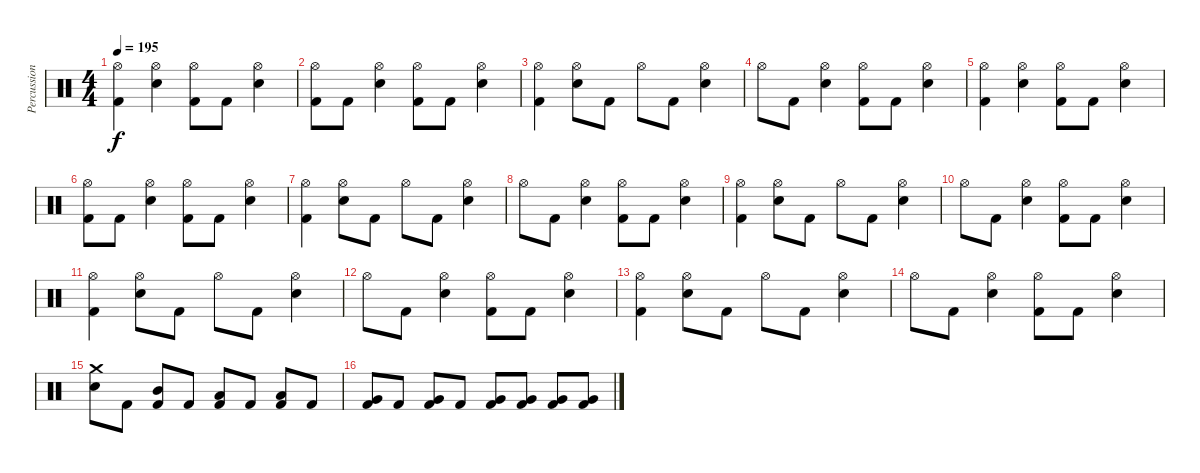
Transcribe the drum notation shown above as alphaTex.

\track ("Percussion" "Percussion") {instrument percussion}
\staff {score}
\articulation defaults
\ts (4 4)
\tempo 195
\clef neutral
\ks c
("Hi-Hat (open)" "Kick (hit) 2").4{dy f} ("Hi-Hat (open)" "Snare (hit) 2").4 ("Hi-Hat (open)" "Kick (hit) 2").8 "Kick (hit) 2".8 ("Hi-Hat (open)" "Snare (hit) 2").4 |
("Hi-Hat (open)" "Kick (hit) 2").8 "Kick (hit) 2".8 ("Hi-Hat (open)" "Snare (hit) 2").4 ("Hi-Hat (open)" "Kick (hit) 2").8 "Kick (hit) 2".8 ("Hi-Hat (open)" "Snare (hit) 2").4 |
("Hi-Hat (open)" "Kick (hit) 2").4 ("Hi-Hat (open)" "Snare (hit) 2").8 "Kick (hit) 2".8 "Hi-Hat (open)".8 "Kick (hit) 2".8 ("Hi-Hat (open)" "Snare (hit) 2").4 |
"Hi-Hat (open)".8 "Kick (hit) 2".8 ("Hi-Hat (open)" "Snare (hit) 2").4 ("Hi-Hat (open)" "Kick (hit) 2").8 "Kick (hit) 2".8 ("Hi-Hat (open)" "Snare (hit) 2").4 |
("Hi-Hat (open)" "Kick (hit) 2").4 ("Hi-Hat (open)" "Snare (hit) 2").4 ("Hi-Hat (open)" "Kick (hit) 2").8 "Kick (hit) 2".8 ("Hi-Hat (open)" "Snare (hit) 2").4 |
("Hi-Hat (open)" "Kick (hit) 2").8 "Kick (hit) 2".8 ("Hi-Hat (open)" "Snare (hit) 2").4 ("Hi-Hat (open)" "Kick (hit) 2").8 "Kick (hit) 2".8 ("Hi-Hat (open)" "Snare (hit) 2").4 |
("Hi-Hat (open)" "Kick (hit) 2").4 ("Hi-Hat (open)" "Snare (hit) 2").8 "Kick (hit) 2".8 "Hi-Hat (open)".8 "Kick (hit) 2".8 ("Hi-Hat (open)" "Snare (hit) 2").4 |
"Hi-Hat (open)".8 "Kick (hit) 2".8 ("Hi-Hat (open)" "Snare (hit) 2").4 ("Hi-Hat (open)" "Kick (hit) 2").8 "Kick (hit) 2".8 ("Hi-Hat (open)" "Snare (hit) 2").4 |
("Hi-Hat (open)" "Kick (hit) 2").4 ("Hi-Hat (open)" "Snare (hit) 2").8 "Kick (hit) 2".8 "Hi-Hat (open)".8 "Kick (hit) 2".8 ("Hi-Hat (open)" "Snare (hit) 2").4 |
"Hi-Hat (open)".8 "Kick (hit) 2".8 ("Hi-Hat (open)" "Snare (hit) 2").4 ("Hi-Hat (open)" "Kick (hit) 2").8 "Kick (hit) 2".8 ("Hi-Hat (open)" "Snare (hit) 2").4 |
("Hi-Hat (open)" "Kick (hit) 2").4 ("Hi-Hat (open)" "Snare (hit) 2").8 "Kick (hit) 2".8 "Hi-Hat (open)".8 "Kick (hit) 2".8 ("Hi-Hat (open)" "Snare (hit) 2").4 |
"Hi-Hat (open)".8 "Kick (hit) 2".8 ("Hi-Hat (open)" "Snare (hit) 2").4 ("Hi-Hat (open)" "Kick (hit) 2").8 "Kick (hit) 2".8 ("Hi-Hat (open)" "Snare (hit) 2").4 |
("Hi-Hat (open)" "Kick (hit) 2").4 ("Hi-Hat (open)" "Snare (hit) 2").8 "Kick (hit) 2".8 "Hi-Hat (open)".8 "Kick (hit) 2".8 ("Hi-Hat (open)" "Snare (hit) 2").4 |
"Hi-Hat (open)".8 "Kick (hit) 2".8 ("Hi-Hat (open)" "Snare (hit) 2").4 ("Hi-Hat (open)" "Kick (hit) 2").8 "Kick (hit) 2".8 ("Hi-Hat (open)" "Snare (hit) 2").4 |
("Crash medium (hit)" "Snare (hit) 2").8 "Kick (hit) 2".8 ("Mid Tom (hit)" "Kick (hit) 2").8 "Kick (hit) 2".8 ("Low Tom (hit)" "Kick (hit) 2").8 "Kick (hit) 2".8 ("Low Tom (hit)" "Kick (hit) 2").8 "Kick (hit) 2".8 |
("Very Low Tom (hit)" "Kick (hit) 2").8 "Kick (hit) 2".8 ("Very Low Tom (hit)" "Kick (hit) 2").8 "Kick (hit) 2".8 ("Very Low Tom (hit)" "Kick (hit) 2").8 ("Very Low Tom (hit)" "Kick (hit) 2").8 ("Very Low Tom (hit)" "Kick (hit) 2").8 ("Very Low Tom (hit)" "Kick (hit) 2").8
